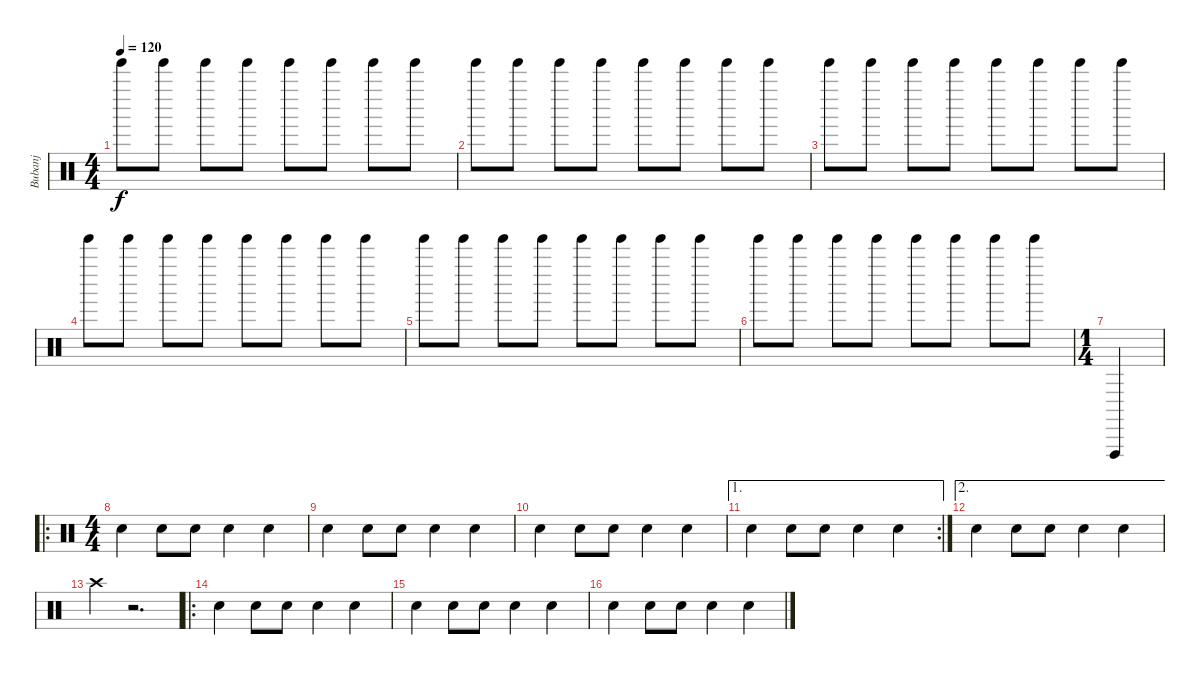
\track ("Bubanj" "Bubanj") {instrument percussion}
\staff {score}
\articulation defaults
\ts (4 4)
\tempo 120
\clef neutral
\ks c "Tinkle Bell (hit)".8{dy f} "Tinkle Bell (hit)".8 "Tinkle Bell (hit)".8 "Tinkle Bell (hit)".8 "Tinkle Bell (hit)".8 "Tinkle Bell (hit)".8 "Tinkle Bell (hit)".8 "Tinkle Bell (hit)".8
|
"Tinkle Bell (hit)".8 "Tinkle Bell (hit)".8 "Tinkle Bell (hit)".8 "Tinkle Bell (hit)".8 "Tinkle Bell (hit)".8 "Tinkle Bell (hit)".8 "Tinkle Bell (hit)".8 "Tinkle Bell (hit)".8 |
"Tinkle Bell (hit)".8 "Tinkle Bell (hit)".8 "Tinkle Bell (hit)".8 "Tinkle Bell (hit)".8 "Tinkle Bell (hit)".8 "Tinkle Bell (hit)".8 "Tinkle Bell (hit)".8 "Tinkle Bell (hit)".8 |
"Tinkle Bell (hit)".8 "Tinkle Bell (hit)".8 "Tinkle Bell (hit)".8 "Tinkle Bell (hit)".8 "Tinkle Bell (hit)".8 "Tinkle Bell (hit)".8 "Tinkle Bell (hit)".8 "Tinkle Bell (hit)".8 |
"Tinkle Bell (hit)".8 "Tinkle Bell (hit)".8 "Tinkle Bell (hit)".8 "Tinkle Bell (hit)".8 "Tinkle Bell (hit)".8 "Tinkle Bell (hit)".8 "Tinkle Bell (hit)".8 "Tinkle Bell (hit)".8 |
"Tinkle Bell (hit)".8 "Tinkle Bell (hit)".8 "Tinkle Bell (hit)".8 "Tinkle Bell (hit)".8 "Tinkle Bell (hit)".8 "Tinkle Bell (hit)".8 "Tinkle Bell (hit)".8 "Tinkle Bell (hit)".8 |
\ts (1 4)
"Vibraslap (hit)".4 |
\ro
\ts (4 4)
"Snare (hit) 2".4 "Snare (hit) 2".8 "Snare (hit) 2".8 "Snare (hit) 2".4 "Snare (hit) 2".4 |
"Snare (hit) 2".4 "Snare (hit) 2".8 "Snare (hit) 2".8 "Snare (hit) 2".4 "Snare (hit) 2".4 |
"Snare (hit) 2".4 "Snare (hit) 2".8 "Snare (hit) 2".8 "Snare (hit) 2".4 "Snare (hit) 2".4 |
\ae 1
\rc 2 "Snare (hit) 2".4 "Snare (hit) 2".8 "Snare (hit) 2".8 "Snare (hit) 2".4 "Snare (hit) 2".4
|
\ae 2 "Snare (hit) 2".4 "Snare (hit) 2".8 "Snare (hit) 2".8 "Snare (hit) 2".4 "Snare (hit) 2".4
|
"Crash high (hit)".4 r.2{d} |
\ro "Snare (hit) 2".4 "Snare (hit) 2".8 "Snare (hit) 2".8 "Snare (hit) 2".4 "Snare (hit) 2".4
|
"Snare (hit) 2".4 "Snare (hit) 2".8 "Snare (hit) 2".8 "Snare (hit) 2".4 "Snare (hit) 2".4 |
"Snare (hit) 2".4 "Snare (hit) 2".8 "Snare (hit) 2".8 "Snare (hit) 2".4 "Snare (hit) 2".4
